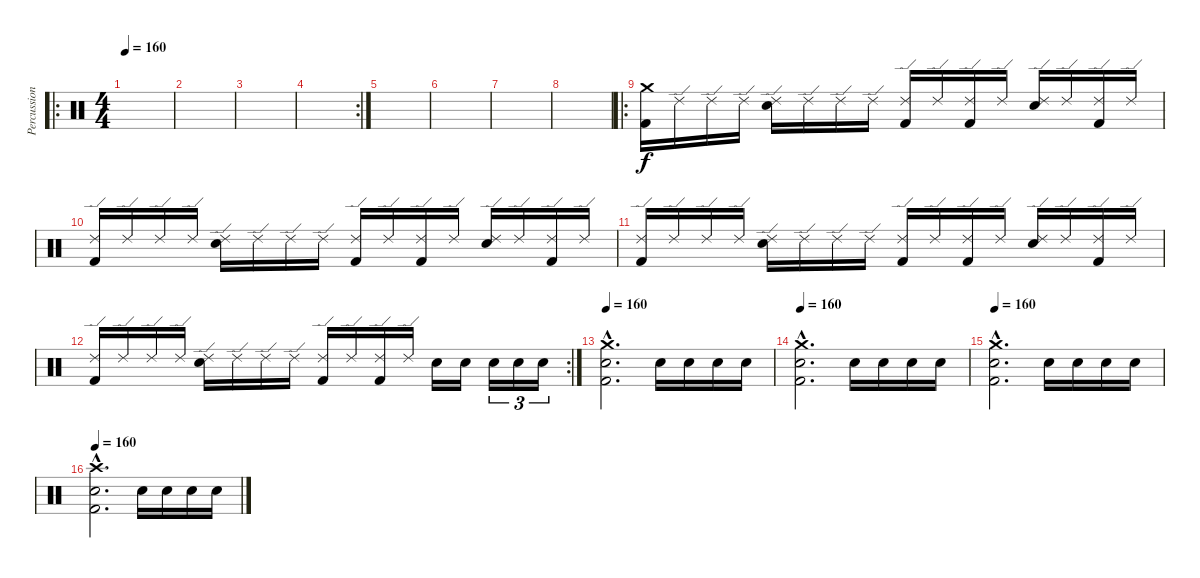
\track ("Percussions" "Percussion") {instrument percussion}
\staff {score}
\articulation defaults
\ro
\ts (4 4)
\tempo 160
\tempo 80
\tempo 160
\clef neutral
\ks c
|
|
|
\rc 2
|
|
|
|
|
\ro
("Crash medium (hit)" "Kick (hit) 2").16 "Ride (edge) 2".16 "Ride (edge) 2".16 "Ride (edge) 2".16 ("Ride (edge) 2" "Electric Snare (hit)").16 "Ride (edge) 2".16 "Ride (edge) 2".16 "Ride (edge) 2".16 ("Ride (edge) 2" "Kick (hit) 2").16 "Ride (edge) 2".16 ("Ride (edge) 2" "Kick (hit) 2").16 "Ride (edge) 2".16 ("Ride (edge) 2" "Electric Snare (hit)").16 "Ride (edge) 2".16 ("Ride (edge) 2" "Kick (hit) 2").16 "Ride (edge) 2".16 |
("Ride (edge) 2" "Kick (hit) 2").16 "Ride (edge) 2".16 "Ride (edge) 2".16 "Ride (edge) 2".16 ("Ride (edge) 2" "Electric Snare (hit)").16 "Ride (edge) 2".16 "Ride (edge) 2".16 "Ride (edge) 2".16 ("Ride (edge) 2" "Kick (hit) 2").16 "Ride (edge) 2".16 ("Ride (edge) 2" "Kick (hit) 2").16 "Ride (edge) 2".16 ("Ride (edge) 2" "Electric Snare (hit)").16 "Ride (edge) 2".16 ("Ride (edge) 2" "Kick (hit) 2").16 "Ride (edge) 2".16 |
("Ride (edge) 2" "Kick (hit) 2").16 "Ride (edge) 2".16 "Ride (edge) 2".16 "Ride (edge) 2".16 ("Ride (edge) 2" "Electric Snare (hit)").16 "Ride (edge) 2".16 "Ride (edge) 2".16 "Ride (edge) 2".16 ("Ride (edge) 2" "Kick (hit) 2").16 "Ride (edge) 2".16 ("Ride (edge) 2" "Kick (hit) 2").16 "Ride (edge) 2".16 ("Ride (edge) 2" "Electric Snare (hit)").16 "Ride (edge) 2".16 ("Ride (edge) 2" "Kick (hit) 2").16 "Ride (edge) 2".16 |
\rc 2
("Ride (edge) 2" "Kick (hit) 2").16 "Ride (edge) 2".16 "Ride (edge) 2".16 "Ride (edge) 2".16 ("Ride (edge) 2" "Electric Snare (hit)").16 "Ride (edge) 2".16 "Ride (edge) 2".16 "Ride (edge) 2".16 ("Ride (edge) 2" "Kick (hit) 2").16 "Ride (edge) 2".16 ("Ride (edge) 2" "Kick (hit) 2").16 "Ride (edge) 2".16 "Electric Snare (hit)".16 "Electric Snare (hit)".16 "Snare (hit) 2".16{tu (3 2)} "Snare (hit) 2".16{tu (3 2)} "Snare (hit) 2".16{tu (3 2)} |
\tempo 160
("Crash medium (hit)"{hac} "Electric Snare (hit)"{hac} "Kick (hit) 2"{hac}).2{d} "Electric Snare (hit)".16 "Electric Snare (hit)".16 "Electric Snare (hit)".16 "Electric Snare (hit)".16 |
\tempo 160
("Crash medium (hit)"{hac} "Electric Snare (hit)"{hac} "Kick (hit) 2"{hac}).2{d} "Electric Snare (hit)".16 "Electric Snare (hit)".16 "Electric Snare (hit)".16 "Electric Snare (hit)".16 |
\tempo 160
("Crash medium (hit)"{hac} "Electric Snare (hit)"{hac} "Kick (hit) 2"{hac}).2{d} "Electric Snare (hit)".16 "Electric Snare (hit)".16 "Electric Snare (hit)".16 "Electric Snare (hit)".16 |
\tempo 160
("Crash high (hit)"{hac} "Electric Snare (hit)"{hac} "Kick (hit) 2"{hac}).2{d} "Electric Snare (hit)".16 "Electric Snare (hit)".16 "Electric Snare (hit)".16 "Electric Snare (hit)".16
